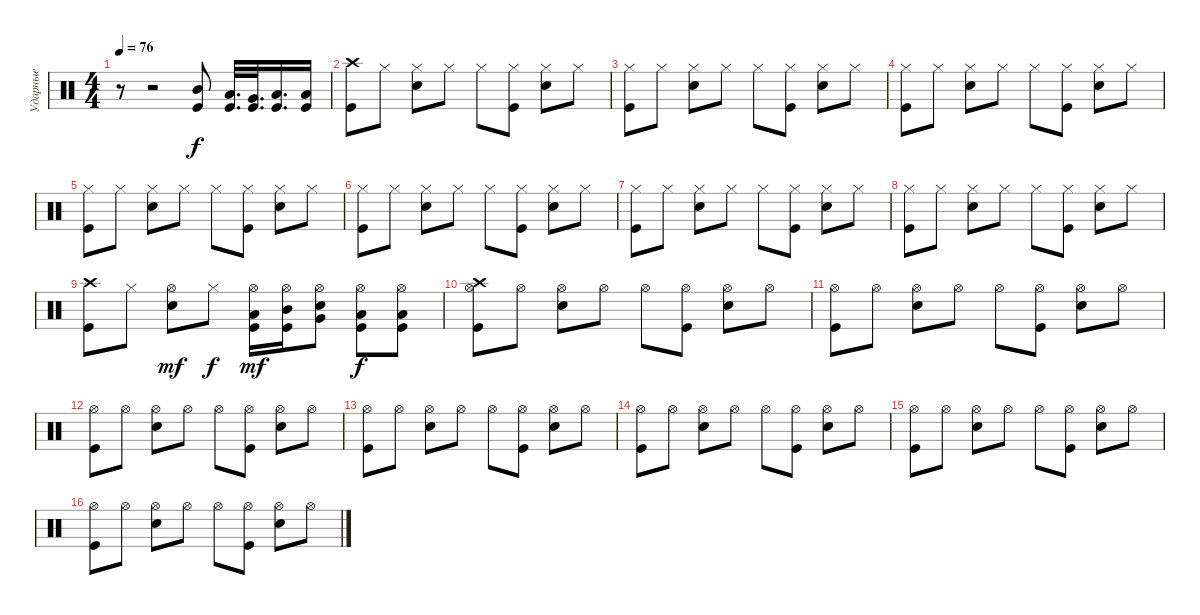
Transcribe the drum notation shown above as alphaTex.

\track ("Ударные" "Ударные") {instrument percussion}
\staff {score}
\articulation defaults
\ts (4 4)
\tempo 76
\clef neutral
\ks c
r.8{dy f} r.2 ("Kick (hit)" "Mid Tom (hit)").8 ("Kick (hit)" "Low Tom (hit)").32{d} ("Kick (hit)" "Very Low Tom (hit)").32{d} ("Kick (hit)" "Low Tom (hit)").16{d} ("Kick (hit)" "Low Floor Tom (hit)").16 |
("Crash high (hit)" "Kick (hit)").8 "Hi-Hat (closed)".8 ("Hi-Hat (closed)" "Electric Snare (hit)").8 "Hi-Hat (closed)".8 "Hi-Hat (closed)".8 ("Hi-Hat (closed)" "Kick (hit)").8 ("Hi-Hat (closed)" "Electric Snare (hit)").8 "Hi-Hat (closed)".8 |
("Hi-Hat (closed)" "Kick (hit)").8 "Hi-Hat (closed)".8 ("Hi-Hat (closed)" "Electric Snare (hit)").8 "Hi-Hat (closed)".8 "Hi-Hat (closed)".8 ("Hi-Hat (closed)" "Kick (hit)").8 ("Hi-Hat (closed)" "Electric Snare (hit)").8 "Hi-Hat (closed)".8 |
("Hi-Hat (closed)" "Kick (hit)").8 "Hi-Hat (closed)".8 ("Hi-Hat (closed)" "Electric Snare (hit)").8 "Hi-Hat (closed)".8 "Hi-Hat (closed)".8 ("Hi-Hat (closed)" "Kick (hit)").8 ("Hi-Hat (closed)" "Electric Snare (hit)").8 "Hi-Hat (closed)".8 |
("Hi-Hat (closed)" "Kick (hit)").8 "Hi-Hat (closed)".8 ("Hi-Hat (closed)" "Electric Snare (hit)").8 "Hi-Hat (closed)".8 "Hi-Hat (closed)".8 ("Hi-Hat (closed)" "Kick (hit)").8 ("Hi-Hat (closed)" "Electric Snare (hit)").8 "Hi-Hat (closed)".8 |
("Hi-Hat (closed)" "Kick (hit)").8 "Hi-Hat (closed)".8 ("Hi-Hat (closed)" "Electric Snare (hit)").8 "Hi-Hat (closed)".8 "Hi-Hat (closed)".8 ("Hi-Hat (closed)" "Kick (hit)").8 ("Hi-Hat (closed)" "Electric Snare (hit)").8 "Hi-Hat (closed)".8 |
("Hi-Hat (closed)" "Kick (hit)").8 "Hi-Hat (closed)".8 ("Hi-Hat (closed)" "Electric Snare (hit)").8 "Hi-Hat (closed)".8 "Hi-Hat (closed)".8 ("Hi-Hat (closed)" "Kick (hit)").8 ("Hi-Hat (closed)" "Electric Snare (hit)").8 "Hi-Hat (closed)".8 |
("Hi-Hat (closed)" "Kick (hit)").8 "Hi-Hat (closed)".8 ("Hi-Hat (closed)" "Electric Snare (hit)").8 "Hi-Hat (closed)".8 "Hi-Hat (closed)".8 ("Hi-Hat (closed)" "Kick (hit)").8 ("Hi-Hat (closed)" "Electric Snare (hit)").8 "Hi-Hat (closed)".8 |
("Kick (hit)" "Crash high (hit)").8 "Hi-Hat (closed)".8 ("Electric Snare (hit)" "Hi-Hat (open)").8{dy mf} "Hi-Hat (closed)".8{dy f} ("Kick (hit)" "Hi-Hat (open)" "Low Tom (hit)").16{dy mf} ("Kick (hit)" "Hi-Hat (open)" "Mid Tom (hit)").16 ("Electric Snare (hit)" "Hi-Hat (open)" "Very Low Tom (hit)").8 ("Kick (hit)" "Hi-Hat (open)" "Low Floor Tom (hit)").8{dy f} ("Kick (hit)" "Hi-Hat (open)" "Low Floor Tom (hit)").8 |
("Hi-Hat (open)" "Crash high (hit)" "Kick (hit)").8 "Hi-Hat (open)".8 ("Hi-Hat (open)" "Electric Snare (hit)").8 "Hi-Hat (open)".8 "Hi-Hat (open)".8 ("Hi-Hat (open)" "Kick (hit)").8 ("Hi-Hat (open)" "Electric Snare (hit)").8 "Hi-Hat (open)".8 |
("Hi-Hat (open)" "Kick (hit)").8 "Hi-Hat (open)".8 ("Hi-Hat (open)" "Electric Snare (hit)").8 "Hi-Hat (open)".8 "Hi-Hat (open)".8 ("Hi-Hat (open)" "Kick (hit)").8 ("Hi-Hat (open)" "Electric Snare (hit)").8 "Hi-Hat (open)".8 |
("Hi-Hat (open)" "Kick (hit)").8 "Hi-Hat (open)".8 ("Hi-Hat (open)" "Electric Snare (hit)").8 "Hi-Hat (open)".8 "Hi-Hat (open)".8 ("Hi-Hat (open)" "Kick (hit)").8 ("Hi-Hat (open)" "Electric Snare (hit)").8 "Hi-Hat (open)".8 |
("Hi-Hat (open)" "Kick (hit)").8 "Hi-Hat (open)".8 ("Hi-Hat (open)" "Electric Snare (hit)").8 "Hi-Hat (open)".8 "Hi-Hat (open)".8 ("Hi-Hat (open)" "Kick (hit)").8 ("Hi-Hat (open)" "Electric Snare (hit)").8 "Hi-Hat (open)".8 |
("Hi-Hat (open)" "Kick (hit)").8 "Hi-Hat (open)".8 ("Hi-Hat (open)" "Electric Snare (hit)").8 "Hi-Hat (open)".8 "Hi-Hat (open)".8 ("Hi-Hat (open)" "Kick (hit)").8 ("Hi-Hat (open)" "Electric Snare (hit)").8 "Hi-Hat (open)".8 |
("Hi-Hat (open)" "Kick (hit)").8 "Hi-Hat (open)".8 ("Hi-Hat (open)" "Electric Snare (hit)").8 "Hi-Hat (open)".8 "Hi-Hat (open)".8 ("Hi-Hat (open)" "Kick (hit)").8 ("Hi-Hat (open)" "Electric Snare (hit)").8 "Hi-Hat (open)".8 |
("Hi-Hat (open)" "Kick (hit)").8 "Hi-Hat (open)".8 ("Hi-Hat (open)" "Electric Snare (hit)").8 "Hi-Hat (open)".8 "Hi-Hat (open)".8 ("Hi-Hat (open)" "Kick (hit)").8 ("Hi-Hat (open)" "Electric Snare (hit)").8 "Hi-Hat (open)".8
